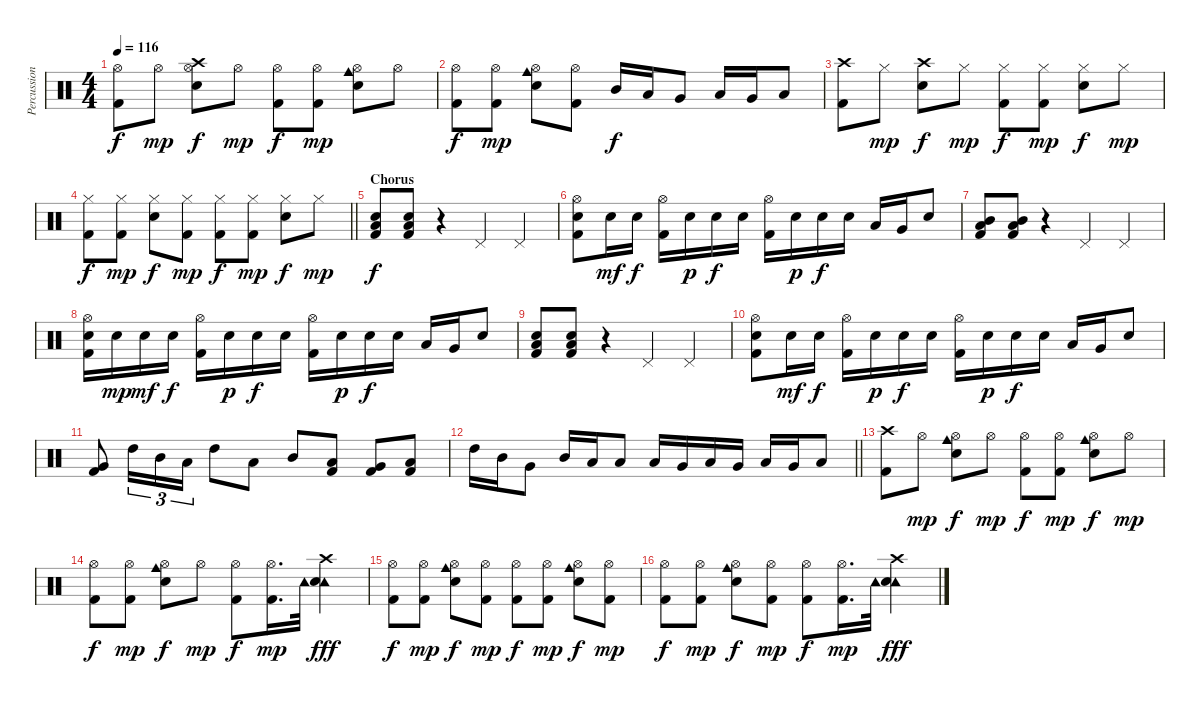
\track ("Percussion (Peter)" "Percussion") {instrument percussion}
\staff {score}
\articulation defaults
\ts (4 4)
\tempo 116
\clef neutral
\ks c
("Hi-Hat (open)" "Kick (hit) 2").8{dy f} "Hi-Hat (open)".8{dy mp} ("Crash high (hit)" "Hi-Hat (open)" "Snare (hit) 2").8{dy f} "Hi-Hat (open)".8{dy mp} ("Hi-Hat (open)" "Kick (hit) 2").8{dy f} ("Hi-Hat (open)" "Kick (hit) 2").8{dy mp} ("Cowbell medium (hit)" "Hi-Hat (open)" "Snare (hit) 2").8 "Hi-Hat (open)".8 |
("Hi-Hat (open)" "Kick (hit) 2").8{dy f} ("Hi-Hat (open)" "Kick (hit) 2").8{dy mp} ("Cowbell medium (hit)" "Hi-Hat (open)" "Snare (hit) 2").8 ("Hi-Hat (open)" "Kick (hit) 2").8 "Mid Tom (hit)".16{dy f} "Low Tom (hit)".16 "Very Low Tom (hit)".8 "Low Tom (hit)".16 "Very Low Tom (hit)".16 "Low Floor Tom (hit)".8 |
("Crash high (hit)" "Kick (hit) 2").8 "Hi-Hat (closed)".8{dy mp} ("Crash high (hit)" "Snare (hit) 2").8{dy f} "Hi-Hat (closed)".8{dy mp} ("Hi-Hat (closed)" "Kick (hit) 2").8{dy f} ("Hi-Hat (closed)" "Kick (hit) 2").8{dy mp} ("Hi-Hat (closed)" "Snare (hit) 2").8{dy f} "Hi-Hat (closed)".8{dy mp} |
\barLineRight lightlight
("Hi-Hat (closed)" "Kick (hit) 2").8{dy f} ("Hi-Hat (closed)" "Kick (hit) 2").8{dy mp} ("Hi-Hat (closed)" "Snare (hit) 2").8{dy f} ("Hi-Hat (closed)" "Kick (hit) 2").8{dy mp} ("Hi-Hat (closed)" "Kick (hit) 2").8{dy f} ("Hi-Hat (closed)" "Kick (hit) 2").8{dy mp} ("Hi-Hat (closed)" "Snare (hit) 2").8{dy f} "Hi-Hat (closed)".8{dy mp} |
\section ("" "Chorus")
("Low Tom (hit)" "Snare (hit) 2" "Kick (hit) 2").8{dy f} ("Low Tom (hit)" "Snare (hit) 2" "Kick (hit) 2").8 r.4 "Pedal Hi-Hat (hit)".4 "Pedal Hi-Hat (hit)".4 |
("Hi-Hat (open)" "Snare (hit) 2" "Kick (hit) 2").8 "Snare (hit) 2".16{dy mf} "Snare (hit) 2".16{dy f} ("Hi-Hat (open)" "Kick (hit) 2").16 "Snare (hit) 2".16{dy p} "Snare (hit) 2".16{dy f} "Snare (hit) 2".16 ("Hi-Hat (open)" "Kick (hit) 2").16 "Snare (hit) 2".16{dy p} "Snare (hit) 2".16{dy f} "Snare (hit) 2".16 "Low Tom (hit)".16 "Very Low Tom (hit)".16 "Snare (hit) 2".8 |
("Mid Tom (hit)" "Low Tom (hit)" "Kick (hit) 2").8 ("Mid Tom (hit)" "Low Tom (hit)" "Kick (hit) 2").8 r.4 "Pedal Hi-Hat (hit)".4 "Pedal Hi-Hat (hit)".4 |
("Hi-Hat (open)" "Snare (hit) 2" "Kick (hit) 2").16 "Snare (hit) 2".16{dy mp} "Snare (hit) 2".16{dy mf} "Snare (hit) 2".16{dy f} ("Hi-Hat (open)" "Kick (hit) 2").16 "Snare (hit) 2".16{dy p} "Snare (hit) 2".16{dy f} "Snare (hit) 2".16 ("Hi-Hat (open)" "Kick (hit) 2").16 "Snare (hit) 2".16{dy p} "Snare (hit) 2".16{dy f} "Snare (hit) 2".16 "Low Tom (hit)".16 "Very Low Tom (hit)".16 "Snare (hit) 2".8 |
("Low Tom (hit)" "Snare (hit) 2" "Kick (hit) 2").8 ("Low Tom (hit)" "Snare (hit) 2" "Kick (hit) 2").8 r.4 "Pedal Hi-Hat (hit)".4 "Pedal Hi-Hat (hit)".4 |
("Hi-Hat (open)" "Snare (hit) 2" "Kick (hit) 2").8 "Snare (hit) 2".16{dy mf} "Snare (hit) 2".16{dy f} ("Hi-Hat (open)" "Kick (hit) 2").16 "Snare (hit) 2".16{dy p} "Snare (hit) 2".16{dy f} "Snare (hit) 2".16 ("Hi-Hat (open)" "Kick (hit) 2").16 "Snare (hit) 2".16{dy p} "Snare (hit) 2".16{dy f} "Snare (hit) 2".16 "Low Tom (hit)".16 "Very Low Tom (hit)".16 "Snare (hit) 2".8 |
("Very Low Tom (hit)" "Kick (hit) 2").8 "High Tom (hit)".16{tu (3 2)} "Mid Tom (hit)".16{tu (3 2)} "Low Tom (hit)".16{tu (3 2)} "High Tom (hit)".8 "Low Tom (hit)".8 "Mid Tom (hit)".8 ("Low Tom (hit)" "Kick (hit) 2").8 ("Very Low Tom (hit)" "Kick (hit) 2").8 ("Low Floor Tom (hit)" "Kick (hit) 2").8 |
\barLineRight lightlight "High Tom (hit)".16 "Mid Tom (hit)".16 "Very Low Tom (hit)".8 "Mid Tom (hit)".16 "Low Tom (hit)".16 "Low Floor Tom (hit)".8 "Low Tom (hit)".16 "Very Low Tom (hit)".16 "Low Floor Tom (hit)".16 "Very Low Tom (hit)".16 "Low Floor Tom (hit)".16 "Very Low Tom (hit)".16 "Low Floor Tom (hit)".8
|
("Crash high (hit)" "Kick (hit) 2").8 "Hi-Hat (open)".8{dy mp} ("Cowbell medium (hit)" "Hi-Hat (open)" "Snare (hit) 2").8{dy f} "Hi-Hat (open)".8{dy mp} ("Hi-Hat (open)" "Kick (hit) 2").8{dy f} ("Hi-Hat (open)" "Kick (hit) 2").8{dy mp} ("Cowbell medium (hit)" "Hi-Hat (open)" "Snare (hit) 2").8{dy f} "Hi-Hat (open)".8{dy mp} |
("Hi-Hat (open)" "Kick (hit) 2").8{dy f} ("Hi-Hat (open)" "Kick (hit) 2").8{dy mp} ("Cowbell medium (hit)" "Hi-Hat (open)" "Snare (hit) 2").8{dy f} "Hi-Hat (open)".8{dy mp} ("Hi-Hat (open)" "Kick (hit) 2").8{dy f} ("Hi-Hat (open)" "Kick (hit) 2").16{d dy mp} "Tambourine (hit)".32 ("Crash high (hit)" "Tambourine (hit)" "Snare (hit) 2").4{dy fff} |
("Hi-Hat (open)" "Kick (hit) 2").8{dy f} ("Hi-Hat (open)" "Kick (hit) 2").8{dy mp} ("Cowbell medium (hit)" "Hi-Hat (open)" "Snare (hit) 2").8{dy f} ("Hi-Hat (open)" "Kick (hit) 2").8{dy mp} ("Hi-Hat (open)" "Kick (hit) 2").8{dy f} ("Hi-Hat (open)" "Kick (hit) 2").8{dy mp} ("Cowbell medium (hit)" "Hi-Hat (open)" "Snare (hit) 2").8{dy f} ("Hi-Hat (open)" "Kick (hit) 2").8{dy mp} |
("Hi-Hat (open)" "Kick (hit) 2").8{dy f} ("Hi-Hat (open)" "Kick (hit) 2").8{dy mp} ("Cowbell medium (hit)" "Hi-Hat (open)" "Snare (hit) 2").8{dy f} ("Hi-Hat (open)" "Kick (hit) 2").8{dy mp} ("Hi-Hat (open)" "Kick (hit) 2").8{dy f} ("Hi-Hat (open)" "Kick (hit) 2").16{d dy mp} "Tambourine (hit)".32 ("Crash high (hit)" "Tambourine (hit)" "Snare (hit) 2").4{dy fff}
